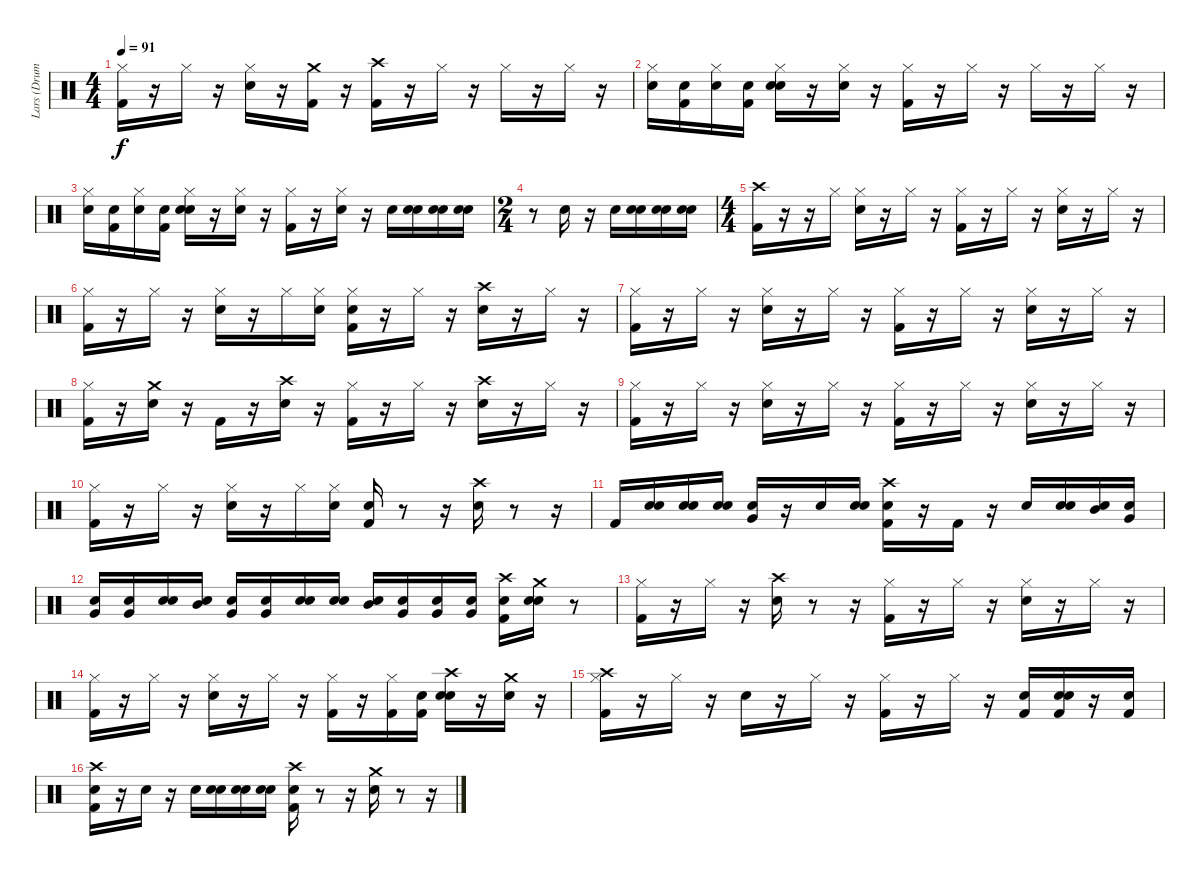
\track ("Lars (Drums)" "Lars (Drum") {instrument percussion}
\staff {score}
\articulation defaults
\ts (4 4)
\tempo 91
\clef neutral
\ks c
("Kick (hit) 2" "Hi-Hat (closed)").16{dy f} r.16 "Hi-Hat (closed)".16 r.16 ("Snare (hit) 2" "Hi-Hat (closed)").16 r.16 ("Kick (hit) 2" "Crash medium (hit)").16 r.16 ("Kick (hit) 2" "Crash high (hit)").16 r.16 "Hi-Hat (closed)".16 r.16 "Hi-Hat (closed)".16 r.16 "Hi-Hat (closed)".16 r.16 |
("Snare (hit) 2" "Hi-Hat (closed)").16 ("Snare (hit)" "Kick (hit) 2").16 ("Snare (hit)" "Hi-Hat (closed)").16 ("Snare (hit)" "Kick (hit) 2").16 ("Snare (hit)" "Snare (hit) 2" "Hi-Hat (closed)").16 r.16 ("Snare (hit) 2" "Hi-Hat (closed)").16 r.16 ("Kick (hit) 2" "Hi-Hat (closed)").16 r.16 "Hi-Hat (closed)".16 r.16 "Hi-Hat (closed)".16 r.16 "Hi-Hat (closed)".16 r.16 |
("Snare (hit) 2" "Hi-Hat (closed)").16 ("Snare (hit)" "Kick (hit) 2").16 ("Snare (hit)" "Hi-Hat (closed)").16 ("Snare (hit)" "Kick (hit) 2").16 ("Snare (hit)" "Snare (hit) 2" "Hi-Hat (closed)").16 r.16 ("Snare (hit) 2" "Hi-Hat (closed)").16 r.16 ("Kick (hit) 2" "Hi-Hat (closed)").16 r.16 ("Snare (hit) 2" "Hi-Hat (closed)").16 r.16 "Snare (hit) 2".16 ("Snare (hit)" "Snare (hit) 2").16 ("Snare (hit)" "Snare (hit) 2").16 ("Snare (hit)" "Snare (hit) 2").16 |
\ts (2 4)
r.8 "Snare (hit) 2".16 r.16 "Snare (hit) 2".16 ("Snare (hit)" "Snare (hit) 2").16 ("Snare (hit)" "Snare (hit) 2").16 ("Snare (hit)" "Snare (hit) 2").16 |
\ts (4 4)
("Kick (hit) 2" "Crash high (hit)").16 r.16 r.16 "Hi-Hat (closed)".16 ("Snare (hit) 2" "Hi-Hat (closed)").16 r.16 "Hi-Hat (closed)".16 r.16 ("Kick (hit) 2" "Hi-Hat (closed)").16 r.16 "Hi-Hat (closed)".16 r.16 ("Snare (hit) 2" "Hi-Hat (closed)").16 r.16 "Hi-Hat (closed)".16 r.16 |
("Kick (hit) 2" "Hi-Hat (closed)").16 r.16 "Hi-Hat (closed)".16 r.16 ("Snare (hit) 2" "Hi-Hat (closed)").16 r.16 "Hi-Hat (closed)".16 ("Snare (hit)" "Hi-Hat (closed)").16 ("Snare (hit)" "Kick (hit) 2" "Hi-Hat (closed)").16 r.16 "Hi-Hat (closed)".16 r.16 ("Snare (hit) 2" "Crash high (hit)").16 r.16 "Hi-Hat (closed)".16 r.16 |
("Kick (hit) 2" "Hi-Hat (closed)").16 r.16 "Hi-Hat (closed)".16 r.16 ("Snare (hit) 2" "Hi-Hat (closed)").16 r.16 "Hi-Hat (closed)".16 r.16 ("Kick (hit) 2" "Hi-Hat (closed)").16 r.16 "Hi-Hat (closed)".16 r.16 ("Snare (hit) 2" "Hi-Hat (closed)").16 r.16 "Hi-Hat (closed)".16 r.16 |
("Kick (hit) 2" "Hi-Hat (closed)").16 r.16 ("Snare (hit) 2" "Crash medium (hit)").16 r.16 "Kick (hit) 2".16 r.16 ("Snare (hit) 2" "Crash high (hit)").16 r.16 ("Kick (hit) 2" "Hi-Hat (closed)").16 r.16 "Hi-Hat (closed)".16 r.16 ("Snare (hit) 2" "Crash high (hit)").16 r.16 "Hi-Hat (closed)".16 r.16 |
("Kick (hit) 2" "Hi-Hat (closed)").16 r.16 "Hi-Hat (closed)".16 r.16 ("Snare (hit) 2" "Hi-Hat (closed)").16 r.16 "Hi-Hat (closed)".16 r.16 ("Kick (hit) 2" "Hi-Hat (closed)").16 r.16 "Hi-Hat (closed)".16 r.16 ("Snare (hit) 2" "Hi-Hat (closed)").16 r.16 "Hi-Hat (closed)".16 r.16 |
("Kick (hit) 2" "Hi-Hat (closed)").16 r.16 "Hi-Hat (closed)".16 r.16 ("Snare (hit) 2" "Hi-Hat (closed)").16 r.16 "Hi-Hat (closed)".16 ("Snare (hit)" "Hi-Hat (closed)").16 ("Snare (hit)" "Kick (hit) 2").16 r.8 r.16 ("Snare (hit) 2" "Crash high (hit)").16 r.8 r.16 |
"Kick (hit) 2".16 ("Snare (hit)" "Snare (hit) 2").16 ("Snare (hit)" "Snare (hit) 2").16 ("Snare (hit)" "Snare (hit) 2").16 ("Snare (hit)" "Very Low Tom (hit)").16 r.16 "Snare (hit) 2".16 ("Snare (hit)" "Snare (hit) 2").16 ("Snare (hit)" "Kick (hit) 2" "Crash high (hit)").16 r.16 "Kick (hit) 2".16 r.16 "Snare (hit) 2".16 ("Snare (hit)" "Snare (hit) 2").16 ("Snare (hit)" "Mid Tom (hit)").16 ("Snare (hit)" "Very Low Tom (hit)").16 |
("Snare (hit)" "Very Low Tom (hit)").16 ("Snare (hit)" "Very Low Tom (hit)").16 ("Snare (hit)" "Snare (hit) 2").16 ("Snare (hit)" "Mid Tom (hit)").16 ("Snare (hit)" "Very Low Tom (hit)").16 ("Snare (hit)" "Very Low Tom (hit)").16 ("Snare (hit)" "Snare (hit) 2").16 ("Snare (hit)" "Snare (hit) 2").16 ("Snare (hit)" "Mid Tom (hit)").16 ("Snare (hit)" "Very Low Tom (hit)").16 ("Snare (hit)" "Very Low Tom (hit)").16 ("Snare (hit)" "Very Low Tom (hit)").16 ("Snare (hit)" "Kick (hit) 2" "Crash high (hit)").16 ("Snare (hit)" "Snare (hit) 2" "Crash medium (hit)").16 r.8 |
("Kick (hit) 2" "Hi-Hat (closed)").16 r.16 "Hi-Hat (closed)".16 r.16 ("Snare (hit) 2" "Crash high (hit)").16 r.8 r.16 ("Kick (hit) 2" "Hi-Hat (closed)").16 r.16 "Hi-Hat (closed)".16 r.16 ("Snare (hit) 2" "Hi-Hat (closed)").16 r.16 "Hi-Hat (closed)".16 r.16 |
("Kick (hit) 2" "Hi-Hat (closed)").16 r.16 "Hi-Hat (closed)".16 r.16 ("Snare (hit) 2" "Hi-Hat (closed)").16 r.16 "Hi-Hat (closed)".16 r.16 ("Kick (hit) 2" "Hi-Hat (closed)").16 r.16 ("Kick (hit) 2" "Hi-Hat (closed)").16 ("Snare (hit)" "Kick (hit) 2").16 ("Snare (hit)" "Snare (hit) 2" "Crash high (hit)").16 r.16 ("Snare (hit) 2" "Crash medium (hit)").16 r.16 |
("Kick (hit) 2" "Hi-Hat (closed)" "Crash high (hit)").16 r.16 "Hi-Hat (closed)".16 r.16 "Snare (hit) 2".16 r.16 "Hi-Hat (closed)".16 r.16 ("Kick (hit) 2" "Hi-Hat (closed)").16 r.16 "Hi-Hat (closed)".16 r.16 ("Kick (hit) 2" "Snare (hit) 2").16 ("Snare (hit)" "Kick (hit) 2" "Snare (hit) 2").16 r.16 ("Kick (hit) 2" "Snare (hit) 2").16 |
("Snare (hit)" "Kick (hit) 2" "Crash high (hit)").16 r.16 "Snare (hit) 2".16 r.16 "Snare (hit) 2".16 ("Snare (hit)" "Snare (hit) 2").16 ("Snare (hit)" "Snare (hit) 2").16 ("Snare (hit)" "Snare (hit) 2").16 ("Snare (hit)" "Kick (hit) 2" "Crash high (hit)").16 r.8 r.16 ("Snare (hit) 2" "Crash medium (hit)").16 r.8 r.16
